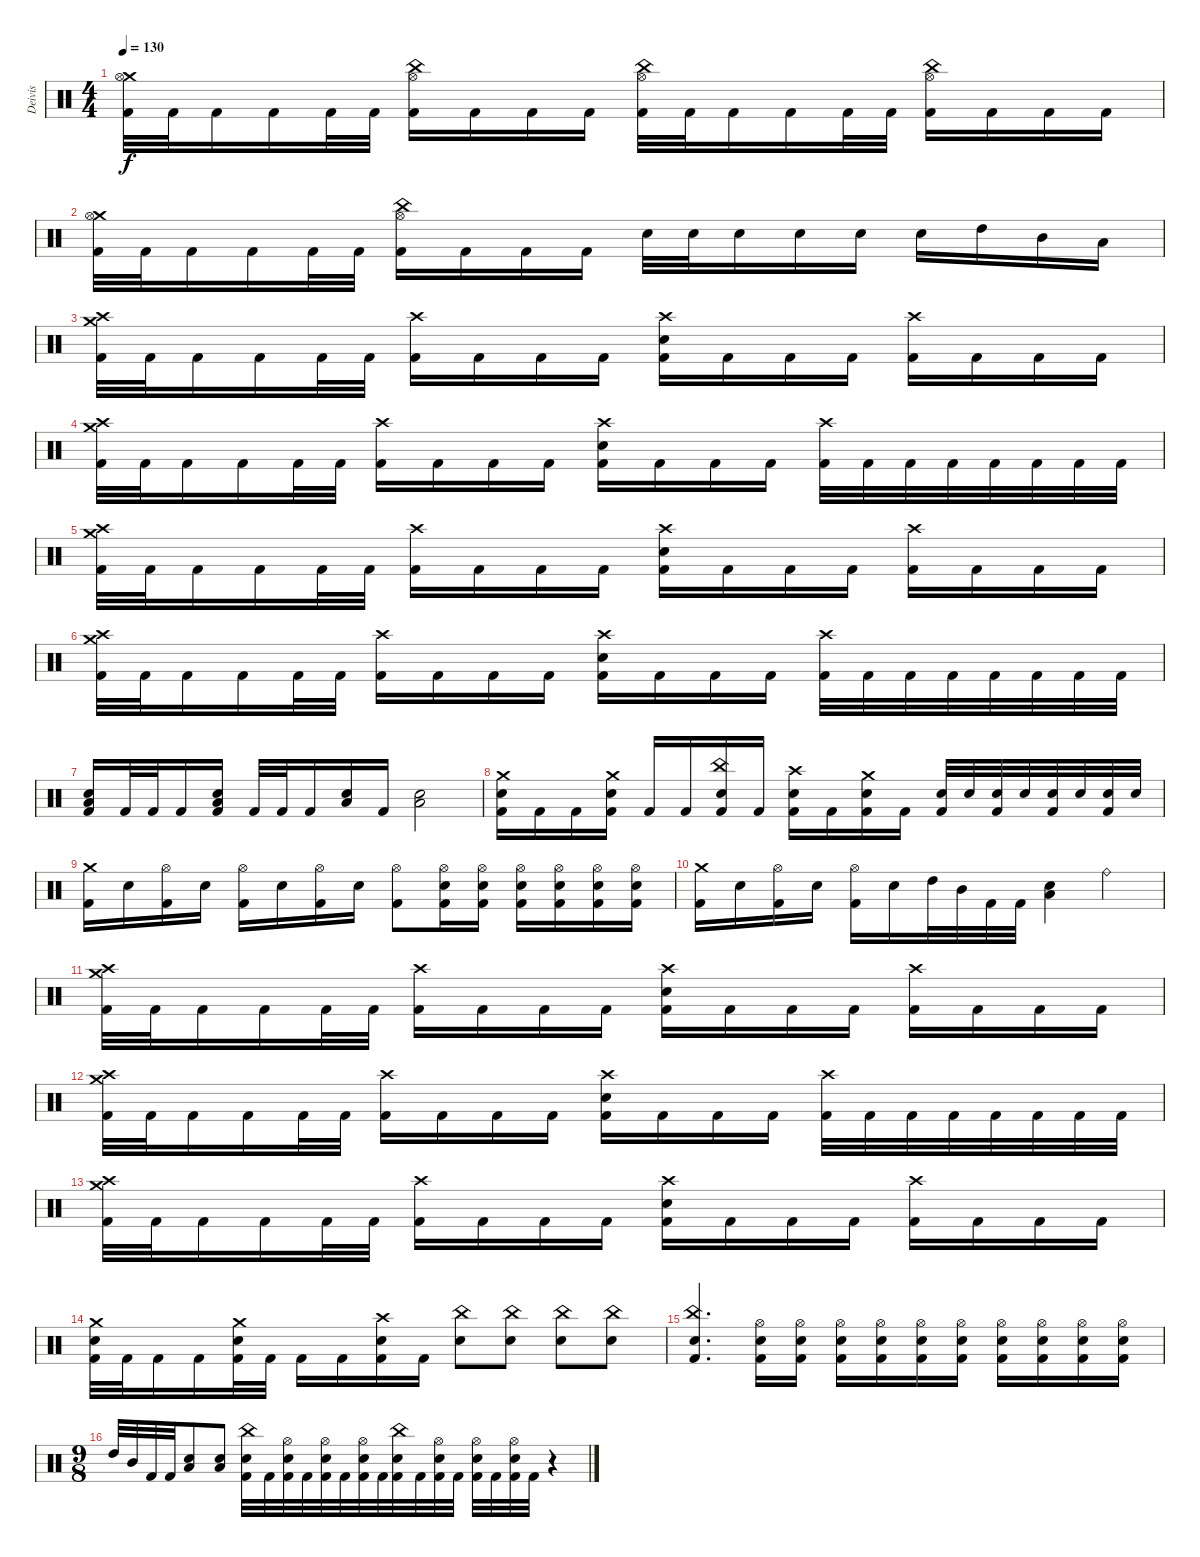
\track ("Deivis" "Deivis") {instrument percussion}
\staff {score}
\articulation defaults
\ts (4 4)
\tempo 130
\clef neutral
\ks c
("Crash medium (hit)" "Hi-Hat (open)" "Kick (hit) 2").32{dy f} "Kick (hit) 2".32 "Kick (hit) 2".16 "Kick (hit) 2".16 "Kick (hit) 2".32 "Kick (hit) 2".32 ("China (hit)" "Hi-Hat (open)" "Kick (hit) 2").16 "Kick (hit) 2".16 "Kick (hit) 2".16 "Kick (hit) 2".16 ("China (hit)" "Hi-Hat (open)" "Kick (hit) 2").32 "Kick (hit) 2".32 "Kick (hit) 2".16 "Kick (hit) 2".16 "Kick (hit) 2".32 "Kick (hit) 2".32 ("China (hit)" "Hi-Hat (open)" "Kick (hit) 2").16 "Kick (hit) 2".16 "Kick (hit) 2".16 "Kick (hit) 2".16 |
("Crash medium (hit)" "Hi-Hat (open)" "Kick (hit) 2").32 "Kick (hit) 2".32 "Kick (hit) 2".16 "Kick (hit) 2".16 "Kick (hit) 2".32 "Kick (hit) 2".32 ("China (hit)" "Hi-Hat (open)" "Kick (hit) 2").16 "Kick (hit) 2".16 "Kick (hit) 2".16 "Kick (hit) 2".16 "Electric Snare (hit)".32 "Electric Snare (hit)".32 "Electric Snare (hit)".16 "Electric Snare (hit)".16 "Electric Snare (hit)".16 "Electric Snare (hit)".16 "High Tom (hit)".16 "Mid Tom (hit)".16 "Low Tom (hit)".16 |
("Crash medium (hit)" "Crash high (hit)" "Kick (hit) 2").32 "Kick (hit) 2".32 "Kick (hit) 2".16 "Kick (hit) 2".16 "Kick (hit) 2".32 "Kick (hit) 2".32 ("Crash high (hit)" "Kick (hit) 2").16 "Kick (hit) 2".16 "Kick (hit) 2".16 "Kick (hit) 2".16 ("Crash high (hit)" "Electric Snare (hit)" "Kick (hit) 2").16 "Kick (hit) 2".16 "Kick (hit) 2".16 "Kick (hit) 2".16 ("Crash high (hit)" "Kick (hit) 2").16 "Kick (hit) 2".16 "Kick (hit) 2".16 "Kick (hit) 2".16 |
("Crash medium (hit)" "Crash high (hit)" "Kick (hit) 2").32 "Kick (hit) 2".32 "Kick (hit) 2".16 "Kick (hit) 2".16 "Kick (hit) 2".32 "Kick (hit) 2".32 ("Crash high (hit)" "Kick (hit) 2").16 "Kick (hit) 2".16 "Kick (hit) 2".16 "Kick (hit) 2".16 ("Crash high (hit)" "Electric Snare (hit)" "Kick (hit) 2").16 "Kick (hit) 2".16 "Kick (hit) 2".16 "Kick (hit) 2".16 ("Crash high (hit)" "Kick (hit) 2").32 "Kick (hit) 2".32 "Kick (hit) 2".32 "Kick (hit) 2".32 "Kick (hit) 2".32 "Kick (hit) 2".32 "Kick (hit) 2".32 "Kick (hit) 2".32 |
("Crash medium (hit)" "Crash high (hit)" "Kick (hit) 2").32 "Kick (hit) 2".32 "Kick (hit) 2".16 "Kick (hit) 2".16 "Kick (hit) 2".32 "Kick (hit) 2".32 ("Crash high (hit)" "Kick (hit) 2").16 "Kick (hit) 2".16 "Kick (hit) 2".16 "Kick (hit) 2".16 ("Crash high (hit)" "Electric Snare (hit)" "Kick (hit) 2").16 "Kick (hit) 2".16 "Kick (hit) 2".16 "Kick (hit) 2".16 ("Crash high (hit)" "Kick (hit) 2").16 "Kick (hit) 2".16 "Kick (hit) 2".16 "Kick (hit) 2".16 |
("Crash medium (hit)" "Crash high (hit)" "Kick (hit) 2").32 "Kick (hit) 2".32 "Kick (hit) 2".16 "Kick (hit) 2".16 "Kick (hit) 2".32 "Kick (hit) 2".32 ("Crash high (hit)" "Kick (hit) 2").16 "Kick (hit) 2".16 "Kick (hit) 2".16 "Kick (hit) 2".16 ("Crash high (hit)" "Electric Snare (hit)" "Kick (hit) 2").16 "Kick (hit) 2".16 "Kick (hit) 2".16 "Kick (hit) 2".16 ("Crash high (hit)" "Kick (hit) 2").32 "Kick (hit) 2".32 "Kick (hit) 2".32 "Kick (hit) 2".32 "Kick (hit) 2".32 "Kick (hit) 2".32 "Kick (hit) 2".32 "Kick (hit) 2".32 |
("Low Floor Tom (hit)" "Electric Snare (hit)" "Kick (hit) 2").16 "Kick (hit) 2".32 "Kick (hit) 2".32 "Kick (hit) 2".16 ("Low Floor Tom (hit)" "Electric Snare (hit)" "Kick (hit) 2").16 "Kick (hit) 2".32 "Kick (hit) 2".32 "Kick (hit) 2".16 ("Low Floor Tom (hit)" "Electric Snare (hit)").16 "Kick (hit) 2".16 ("Low Floor Tom (hit)" "Electric Snare (hit)").2 |
("Crash medium (hit)" "Electric Snare (hit)" "Kick (hit) 2").16 "Kick (hit) 2".16 "Kick (hit) 2".16 ("Crash medium (hit)" "Electric Snare (hit)" "Kick (hit) 2").16 "Kick (hit) 2".16 "Kick (hit) 2".16 ("China (hit)" "Electric Snare (hit)" "Kick (hit) 2").16 "Kick (hit) 2".16 ("Crash high (hit)" "Electric Snare (hit)" "Kick (hit) 2").16 "Kick (hit) 2".16 ("Crash medium (hit)" "Electric Snare (hit)" "Kick (hit) 2").16 "Kick (hit) 2".16 ("Electric Snare (hit)" "Kick (hit) 2").32 "Electric Snare (hit)".32 ("Electric Snare (hit)" "Kick (hit) 2").32 "Electric Snare (hit)".32 ("Electric Snare (hit)" "Kick (hit) 2").32 "Electric Snare (hit)".32 ("Electric Snare (hit)" "Kick (hit) 2").32 "Electric Snare (hit)".32 |
("Crash medium (hit)" "Kick (hit) 2").16 "Electric Snare (hit)".16 ("Hi-Hat (open)" "Kick (hit) 2").16 "Electric Snare (hit)".16 ("Hi-Hat (open)" "Kick (hit) 2").16 "Electric Snare (hit)".16 ("Hi-Hat (open)" "Kick (hit) 2").16 "Electric Snare (hit)".16 ("Hi-Hat (open)" "Kick (hit) 2").8 ("Hi-Hat (open)" "Electric Snare (hit)" "Kick (hit) 2").16 ("Hi-Hat (open)" "Electric Snare (hit)" "Kick (hit) 2").16 ("Hi-Hat (open)" "Electric Snare (hit)" "Kick (hit) 2").16 ("Hi-Hat (open)" "Electric Snare (hit)" "Kick (hit) 2").16 ("Hi-Hat (open)" "Electric Snare (hit)" "Kick (hit) 2").16 ("Hi-Hat (open)" "Electric Snare (hit)" "Kick (hit) 2").16 |
("Crash medium (hit)" "Kick (hit) 2").16 "Electric Snare (hit)".16 ("Hi-Hat (open)" "Kick (hit) 2").16 "Electric Snare (hit)".16 ("Hi-Hat (open)" "Kick (hit) 2").16 "Electric Snare (hit)".16 "High Tom (hit)".32 "Mid Tom (hit)".32 "Kick (hit) 2".32 "Kick (hit) 2".32 ("Low Floor Tom (hit)" "Electric Snare (hit)").4 "Ride (bell)".4 |
("Crash medium (hit)" "Crash high (hit)" "Kick (hit) 2").32 "Kick (hit) 2".32 "Kick (hit) 2".16 "Kick (hit) 2".16 "Kick (hit) 2".32 "Kick (hit) 2".32 ("Crash high (hit)" "Kick (hit) 2").16 "Kick (hit) 2".16 "Kick (hit) 2".16 "Kick (hit) 2".16 ("Crash high (hit)" "Electric Snare (hit)" "Kick (hit) 2").16 "Kick (hit) 2".16 "Kick (hit) 2".16 "Kick (hit) 2".16 ("Crash high (hit)" "Kick (hit) 2").16 "Kick (hit) 2".16 "Kick (hit) 2".16 "Kick (hit) 2".16 |
("Crash medium (hit)" "Crash high (hit)" "Kick (hit) 2").32 "Kick (hit) 2".32 "Kick (hit) 2".16 "Kick (hit) 2".16 "Kick (hit) 2".32 "Kick (hit) 2".32 ("Crash high (hit)" "Kick (hit) 2").16 "Kick (hit) 2".16 "Kick (hit) 2".16 "Kick (hit) 2".16 ("Crash high (hit)" "Electric Snare (hit)" "Kick (hit) 2").16 "Kick (hit) 2".16 "Kick (hit) 2".16 "Kick (hit) 2".16 ("Crash high (hit)" "Kick (hit) 2").32 "Kick (hit) 2".32 "Kick (hit) 2".32 "Kick (hit) 2".32 "Kick (hit) 2".32 "Kick (hit) 2".32 "Kick (hit) 2".32 "Kick (hit) 2".32 |
("Crash medium (hit)" "Crash high (hit)" "Kick (hit) 2").32 "Kick (hit) 2".32 "Kick (hit) 2".16 "Kick (hit) 2".16 "Kick (hit) 2".32 "Kick (hit) 2".32 ("Crash high (hit)" "Kick (hit) 2").16 "Kick (hit) 2".16 "Kick (hit) 2".16 "Kick (hit) 2".16 ("Crash high (hit)" "Electric Snare (hit)" "Kick (hit) 2").16 "Kick (hit) 2".16 "Kick (hit) 2".16 "Kick (hit) 2".16 ("Crash high (hit)" "Kick (hit) 2").16 "Kick (hit) 2".16 "Kick (hit) 2".16 "Kick (hit) 2".16 |
("Crash medium (hit)" "Electric Snare (hit)" "Kick (hit) 2").32 "Kick (hit) 2".32 "Kick (hit) 2".16 "Kick (hit) 2".16 ("Crash medium (hit)" "Electric Snare (hit)" "Kick (hit) 2").32 "Kick (hit) 2".32 "Kick (hit) 2".16 "Kick (hit) 2".16 ("Crash high (hit)" "Electric Snare (hit)" "Kick (hit) 2").16 "Kick (hit) 2".16 ("China (hit)" "Electric Snare (hit)").8 ("China (hit)" "Electric Snare (hit)").8 ("China (hit)" "Electric Snare (hit)").8 ("China (hit)" "Electric Snare (hit)").8 |
("China (hit)" "Electric Snare (hit)" "Kick (hit) 2").4{d} ("Hi-Hat (open)" "Electric Snare (hit)" "Kick (hit) 2").16 ("Hi-Hat (open)" "Electric Snare (hit)" "Kick (hit) 2").16 ("Hi-Hat (open)" "Electric Snare (hit)" "Kick (hit) 2").16 ("Hi-Hat (open)" "Electric Snare (hit)" "Kick (hit) 2").16 ("Hi-Hat (open)" "Electric Snare (hit)" "Kick (hit) 2").16 ("Hi-Hat (open)" "Electric Snare (hit)" "Kick (hit) 2").16 ("Hi-Hat (open)" "Electric Snare (hit)" "Kick (hit) 2").16 ("Hi-Hat (open)" "Electric Snare (hit)" "Kick (hit) 2").16 ("Hi-Hat (open)" "Electric Snare (hit)" "Kick (hit) 2").16 ("Hi-Hat (open)" "Electric Snare (hit)" "Kick (hit) 2").16 |
\ts (9 8)
"High Tom (hit)".32 "Mid Tom (hit)".32 "Kick (hit) 2".32 "Kick (hit) 2".32 ("Low Floor Tom (hit)" "Electric Snare (hit)").8 ("Low Floor Tom (hit)" "Electric Snare (hit)").8 ("China (hit)" "Electric Snare (hit)" "Kick (hit) 2").32 "Kick (hit) 2".32 ("Hi-Hat (open)" "Electric Snare (hit)" "Kick (hit) 2").32 "Kick (hit) 2".32 ("Hi-Hat (open)" "Electric Snare (hit)" "Kick (hit) 2").32 "Kick (hit) 2".32 ("Hi-Hat (open)" "Electric Snare (hit)" "Kick (hit) 2").32 "Kick (hit) 2".32 ("China (hit)" "Electric Snare (hit)" "Kick (hit) 2").32 "Kick (hit) 2".32 ("Hi-Hat (open)" "Electric Snare (hit)" "Kick (hit) 2").32 "Kick (hit) 2".32 ("Hi-Hat (open)" "Electric Snare (hit)" "Kick (hit) 2").32 "Kick (hit) 2".32 ("Hi-Hat (open)" "Electric Snare (hit)" "Kick (hit) 2").32 "Kick (hit) 2".32 r.4
